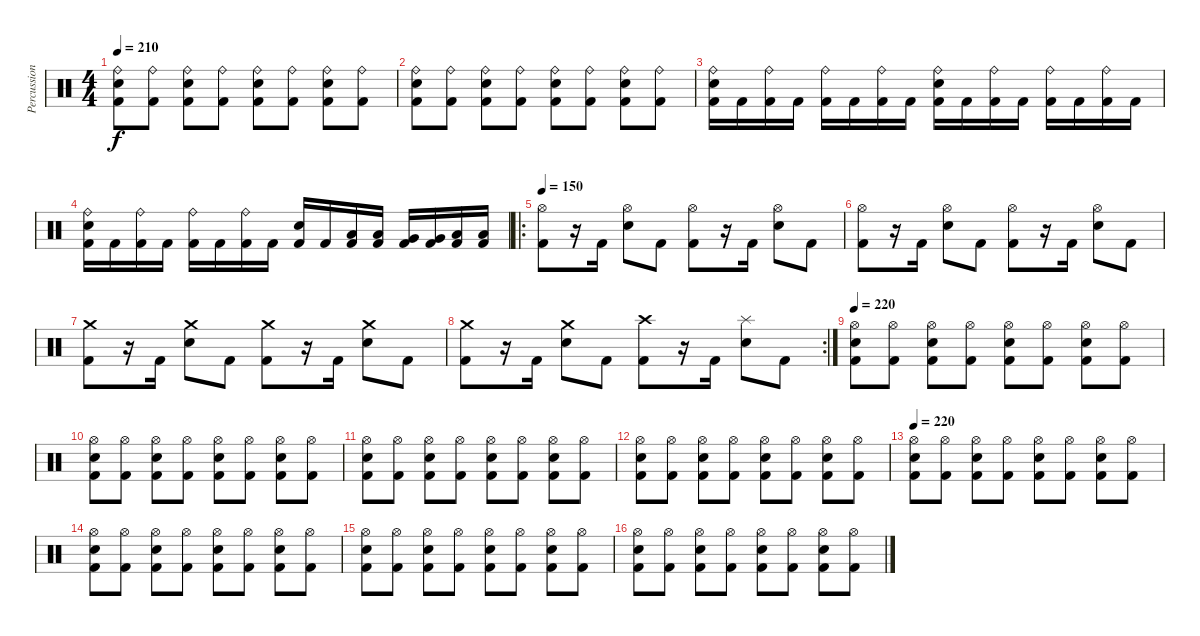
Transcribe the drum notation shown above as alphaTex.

\track ("Percussion" "Percussion") {instrument percussion}
\staff {score}
\articulation defaults
\ts (4 4)
\tempo 210
\clef neutral
\ks c
("Kick (hit) 2" "Snare (hit) 2" "Ride (bell)").8{dy f} ("Kick (hit) 2" "Ride (bell)").8 ("Kick (hit) 2" "Snare (hit) 2" "Ride (bell)").8 ("Kick (hit) 2" "Ride (bell)").8 ("Kick (hit) 2" "Snare (hit) 2" "Ride (bell)").8 ("Kick (hit) 2" "Ride (bell)").8 ("Kick (hit) 2" "Snare (hit) 2" "Ride (bell)").8 ("Kick (hit) 2" "Ride (bell)").8 |
("Kick (hit) 2" "Snare (hit) 2" "Ride (bell)").8 ("Kick (hit) 2" "Ride (bell)").8 ("Kick (hit) 2" "Snare (hit) 2" "Ride (bell)").8 ("Kick (hit) 2" "Ride (bell)").8 ("Kick (hit) 2" "Snare (hit) 2" "Ride (bell)").8 ("Kick (hit) 2" "Ride (bell)").8 ("Kick (hit) 2" "Snare (hit) 2" "Ride (bell)").8 ("Kick (hit) 2" "Ride (bell)").8 |
("Kick (hit) 2" "Snare (hit) 2" "Ride (bell)").16 "Kick (hit) 2".16 ("Kick (hit) 2" "Ride (bell)").16 "Kick (hit) 2".16 ("Kick (hit) 2" "Ride (bell)").16 "Kick (hit) 2".16 ("Kick (hit) 2" "Ride (bell)").16 "Kick (hit) 2".16 ("Kick (hit) 2" "Snare (hit) 2" "Ride (bell)").16 "Kick (hit) 2".16 ("Kick (hit) 2" "Ride (bell)").16 "Kick (hit) 2".16 ("Kick (hit) 2" "Ride (bell)").16 "Kick (hit) 2".16 ("Kick (hit) 2" "Ride (bell)").16 "Kick (hit) 2".16 |
("Kick (hit) 2" "Snare (hit) 2" "Ride (bell)").16 "Kick (hit) 2".16 ("Kick (hit) 2" "Ride (bell)").16 "Kick (hit) 2".16 ("Kick (hit) 2" "Ride (bell)").16 "Kick (hit) 2".16 ("Kick (hit) 2" "Ride (bell)").16 "Kick (hit) 2".16 ("Kick (hit) 2" "Snare (hit) 2").16 "Kick (hit) 2".16 ("Kick (hit) 2" "Low Tom (hit)").16 ("Kick (hit) 2" "Low Tom (hit)").16 ("Kick (hit) 2" "Very Low Tom (hit)").16 ("Kick (hit) 2" "Very Low Tom (hit)").16 ("Kick (hit) 2" "Low Floor Tom (hit)").16 ("Kick (hit) 2" "Low Floor Tom (hit)").16 |
\ro
\tempo 150
("Kick (hit) 2" "Hi-Hat (open)").8 r.16 "Kick (hit) 2".16 ("Snare (hit) 2" "Hi-Hat (open)").8 "Kick (hit) 2".8 ("Kick (hit) 2" "Hi-Hat (open)").8 r.16 "Kick (hit) 2".16 ("Snare (hit) 2" "Hi-Hat (open)").8 "Kick (hit) 2".8 |
("Kick (hit) 2" "Hi-Hat (open)").8 r.16 "Kick (hit) 2".16 ("Snare (hit) 2" "Hi-Hat (open)").8 "Kick (hit) 2".8 ("Kick (hit) 2" "Hi-Hat (open)").8 r.16 "Kick (hit) 2".16 ("Snare (hit) 2" "Hi-Hat (open)").8 "Kick (hit) 2".8 |
("Kick (hit) 2" "Crash medium (hit)").8 r.16 "Kick (hit) 2".16 ("Snare (hit) 2" "Crash medium (hit)").8 "Kick (hit) 2".8 ("Kick (hit) 2" "Crash medium (hit)").8 r.16 "Kick (hit) 2".16 ("Snare (hit) 2" "Crash medium (hit)").8 "Kick (hit) 2".8 |
\rc 2
("Kick (hit) 2" "Crash medium (hit)").8 r.16 "Kick (hit) 2".16 ("Snare (hit) 2" "Crash medium (hit)").8 "Kick (hit) 2".8 ("Kick (hit) 2" "Crash high (hit)").8 r.16 "Kick (hit) 2".16 ("Snare (hit) 2" "Splash (hit)").8 "Kick (hit) 2".8 |
\tempo 220
("Kick (hit) 2" "Snare (hit) 2" "Hi-Hat (open)").8 ("Kick (hit) 2" "Hi-Hat (open)").8 ("Kick (hit) 2" "Snare (hit) 2" "Hi-Hat (open)").8 ("Kick (hit) 2" "Hi-Hat (open)").8 ("Kick (hit) 2" "Snare (hit) 2" "Hi-Hat (open)").8 ("Kick (hit) 2" "Hi-Hat (open)").8 ("Kick (hit) 2" "Snare (hit) 2" "Hi-Hat (open)").8 ("Kick (hit) 2" "Hi-Hat (open)").8 |
("Kick (hit) 2" "Snare (hit) 2" "Hi-Hat (open)").8 ("Kick (hit) 2" "Hi-Hat (open)").8 ("Kick (hit) 2" "Snare (hit) 2" "Hi-Hat (open)").8 ("Kick (hit) 2" "Hi-Hat (open)").8 ("Kick (hit) 2" "Snare (hit) 2" "Hi-Hat (open)").8 ("Kick (hit) 2" "Hi-Hat (open)").8 ("Kick (hit) 2" "Snare (hit) 2" "Hi-Hat (open)").8 ("Kick (hit) 2" "Hi-Hat (open)").8 |
("Kick (hit) 2" "Snare (hit) 2" "Hi-Hat (open)").8 ("Kick (hit) 2" "Hi-Hat (open)").8 ("Kick (hit) 2" "Snare (hit) 2" "Hi-Hat (open)").8 ("Kick (hit) 2" "Hi-Hat (open)").8 ("Kick (hit) 2" "Snare (hit) 2" "Hi-Hat (open)").8 ("Kick (hit) 2" "Hi-Hat (open)").8 ("Kick (hit) 2" "Snare (hit) 2" "Hi-Hat (open)").8 ("Kick (hit) 2" "Hi-Hat (open)").8 |
("Kick (hit) 2" "Snare (hit) 2" "Hi-Hat (open)").8 ("Kick (hit) 2" "Hi-Hat (open)").8 ("Kick (hit) 2" "Snare (hit) 2" "Hi-Hat (open)").8 ("Kick (hit) 2" "Hi-Hat (open)").8 ("Kick (hit) 2" "Snare (hit) 2" "Hi-Hat (open)").8 ("Kick (hit) 2" "Hi-Hat (open)").8 ("Kick (hit) 2" "Snare (hit) 2" "Hi-Hat (open)").8 ("Kick (hit) 2" "Hi-Hat (open)").8 |
\tempo 220
("Kick (hit) 2" "Snare (hit) 2" "Hi-Hat (open)").8 ("Kick (hit) 2" "Hi-Hat (open)").8 ("Kick (hit) 2" "Snare (hit) 2" "Hi-Hat (open)").8 ("Kick (hit) 2" "Hi-Hat (open)").8 ("Kick (hit) 2" "Snare (hit) 2" "Hi-Hat (open)").8 ("Kick (hit) 2" "Hi-Hat (open)").8 ("Kick (hit) 2" "Snare (hit) 2" "Hi-Hat (open)").8 ("Kick (hit) 2" "Hi-Hat (open)").8 |
("Kick (hit) 2" "Snare (hit) 2" "Hi-Hat (open)").8 ("Kick (hit) 2" "Hi-Hat (open)").8 ("Kick (hit) 2" "Snare (hit) 2" "Hi-Hat (open)").8 ("Kick (hit) 2" "Hi-Hat (open)").8 ("Kick (hit) 2" "Snare (hit) 2" "Hi-Hat (open)").8 ("Kick (hit) 2" "Hi-Hat (open)").8 ("Kick (hit) 2" "Snare (hit) 2" "Hi-Hat (open)").8 ("Kick (hit) 2" "Hi-Hat (open)").8 |
("Kick (hit) 2" "Snare (hit) 2" "Hi-Hat (open)").8 ("Kick (hit) 2" "Hi-Hat (open)").8 ("Kick (hit) 2" "Snare (hit) 2" "Hi-Hat (open)").8 ("Kick (hit) 2" "Hi-Hat (open)").8 ("Kick (hit) 2" "Snare (hit) 2" "Hi-Hat (open)").8 ("Kick (hit) 2" "Hi-Hat (open)").8 ("Kick (hit) 2" "Snare (hit) 2" "Hi-Hat (open)").8 ("Kick (hit) 2" "Hi-Hat (open)").8 |
("Kick (hit) 2" "Snare (hit) 2" "Hi-Hat (open)").8 ("Kick (hit) 2" "Hi-Hat (open)").8 ("Kick (hit) 2" "Snare (hit) 2" "Hi-Hat (open)").8 ("Kick (hit) 2" "Hi-Hat (open)").8 ("Kick (hit) 2" "Snare (hit) 2" "Hi-Hat (open)").8 ("Kick (hit) 2" "Hi-Hat (open)").8 ("Kick (hit) 2" "Snare (hit) 2" "Hi-Hat (open)").8 ("Kick (hit) 2" "Hi-Hat (open)").8
